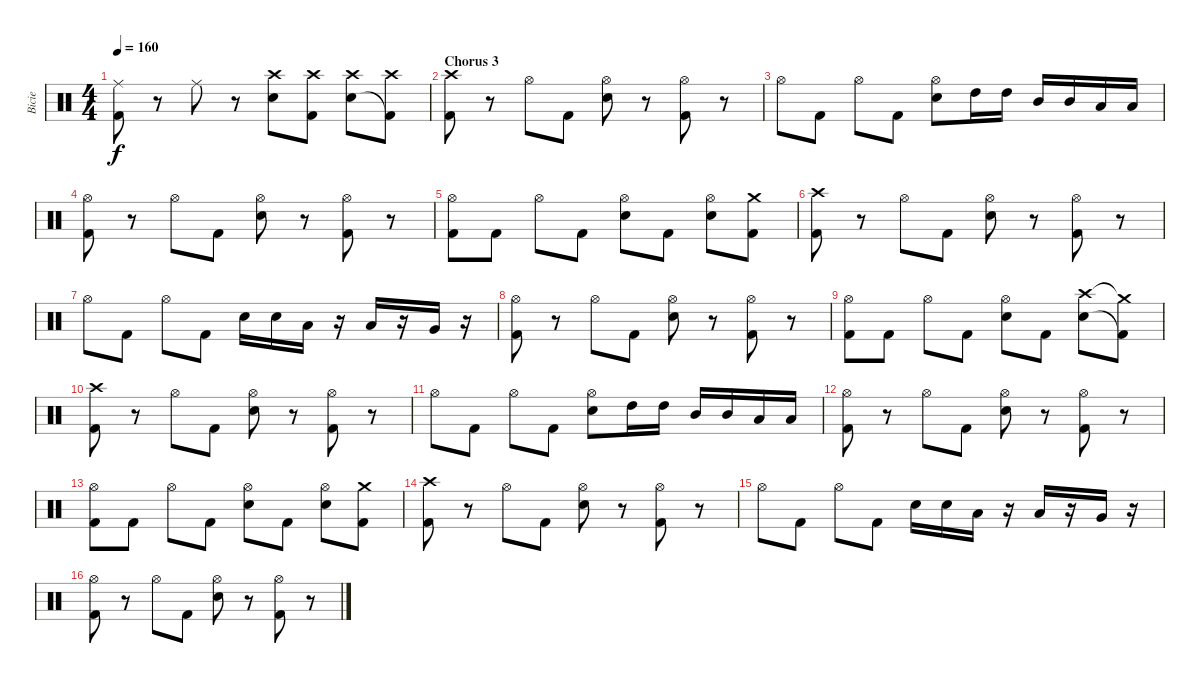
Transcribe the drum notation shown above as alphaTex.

\track ("Bicie" "Bicie") {instrument percussion}
\staff {score}
\articulation defaults
\ts (4 4)
\tempo 160
\clef neutral
\ks c
("Ride (middle)" "Kick (hit) 2").8{dy f} r.8 "Ride (middle)".8 r.8 ("Crash high (hit)" "Electric Snare (hit)").8 ("Crash high (hit)" "Kick (hit) 2").8 ("Crash high (hit)" "Electric Snare (hit)").8 ("Crash high (hit)" "Kick (hit) 2"{t}).8 |
\section ("" "Chorus 3")
("Crash high (hit)" "Kick (hit) 2").8 r.8 "Hi-Hat (open)".8 "Kick (hit) 2".8 ("Hi-Hat (open)" "Electric Snare (hit)").8 r.8 ("Hi-Hat (open)" "Kick (hit) 2").8 r.8 |
"Hi-Hat (open)".8 "Kick (hit) 2".8 "Hi-Hat (open)".8 "Kick (hit) 2".8 ("Hi-Hat (open)" "Electric Snare (hit)").8 "High Tom (hit)".16 "High Tom (hit)".16 "Mid Tom (hit)".16 "Mid Tom (hit)".16 "Low Tom (hit)".16 "Low Tom (hit)".16 |
("Hi-Hat (open)" "Kick (hit) 2").8 r.8 "Hi-Hat (open)".8 "Kick (hit) 2".8 ("Hi-Hat (open)" "Electric Snare (hit)").8 r.8 ("Hi-Hat (open)" "Kick (hit) 2").8 r.8 |
("Hi-Hat (open)" "Kick (hit) 2").8 "Kick (hit) 2".8 "Hi-Hat (open)".8 "Kick (hit) 2".8 ("Hi-Hat (open)" "Electric Snare (hit)").8 "Kick (hit) 2".8 ("Hi-Hat (open)" "Electric Snare (hit)").8 ("Crash medium (hit)" "Kick (hit) 2").8 |
("Crash high (hit)" "Kick (hit) 2").8 r.8 "Hi-Hat (open)".8 "Kick (hit) 2".8 ("Hi-Hat (open)" "Electric Snare (hit)").8 r.8 ("Hi-Hat (open)" "Kick (hit) 2").8 r.8 |
"Hi-Hat (open)".8 "Kick (hit) 2".8 "Hi-Hat (open)".8 "Kick (hit) 2".8 "Electric Snare (hit)".16 "Electric Snare (hit)".16 "Low Tom (hit)".16 r.16 "Low Tom (hit)".16 r.16 "Very Low Tom (hit)".16 r.16 |
("Hi-Hat (open)" "Kick (hit) 2").8 r.8 "Hi-Hat (open)".8 "Kick (hit) 2".8 ("Hi-Hat (open)" "Electric Snare (hit)").8 r.8 ("Hi-Hat (open)" "Kick (hit) 2").8 r.8 |
("Hi-Hat (open)" "Kick (hit) 2").8 "Kick (hit) 2".8 "Hi-Hat (open)".8 "Kick (hit) 2".8 ("Hi-Hat (open)" "Electric Snare (hit)").8 "Kick (hit) 2".8 ("Crash high (hit)" "Electric Snare (hit)").8 ("Crash medium (hit)"{t} "Kick (hit) 2"{t}).8 |
("Crash high (hit)" "Kick (hit) 2").8 r.8 "Hi-Hat (open)".8 "Kick (hit) 2".8 ("Hi-Hat (open)" "Electric Snare (hit)").8 r.8 ("Hi-Hat (open)" "Kick (hit) 2").8 r.8 |
"Hi-Hat (open)".8 "Kick (hit) 2".8 "Hi-Hat (open)".8 "Kick (hit) 2".8 ("Hi-Hat (open)" "Electric Snare (hit)").8 "High Tom (hit)".16 "High Tom (hit)".16 "Mid Tom (hit)".16 "Mid Tom (hit)".16 "Low Tom (hit)".16 "Low Tom (hit)".16 |
("Hi-Hat (open)" "Kick (hit) 2").8 r.8 "Hi-Hat (open)".8 "Kick (hit) 2".8 ("Hi-Hat (open)" "Electric Snare (hit)").8 r.8 ("Hi-Hat (open)" "Kick (hit) 2").8 r.8 |
("Hi-Hat (open)" "Kick (hit) 2").8 "Kick (hit) 2".8 "Hi-Hat (open)".8 "Kick (hit) 2".8 ("Hi-Hat (open)" "Electric Snare (hit)").8 "Kick (hit) 2".8 ("Hi-Hat (open)" "Electric Snare (hit)").8 ("Crash medium (hit)" "Kick (hit) 2").8 |
("Crash high (hit)" "Kick (hit) 2").8 r.8 "Hi-Hat (open)".8 "Kick (hit) 2".8 ("Hi-Hat (open)" "Electric Snare (hit)").8 r.8 ("Hi-Hat (open)" "Kick (hit) 2").8 r.8 |
"Hi-Hat (open)".8 "Kick (hit) 2".8 "Hi-Hat (open)".8 "Kick (hit) 2".8 "Electric Snare (hit)".16 "Electric Snare (hit)".16 "Low Tom (hit)".16 r.16 "Low Tom (hit)".16 r.16 "Very Low Tom (hit)".16 r.16 |
("Hi-Hat (open)" "Kick (hit) 2").8 r.8 "Hi-Hat (open)".8 "Kick (hit) 2".8 ("Hi-Hat (open)" "Electric Snare (hit)").8 r.8 ("Hi-Hat (open)" "Kick (hit) 2").8 r.8
